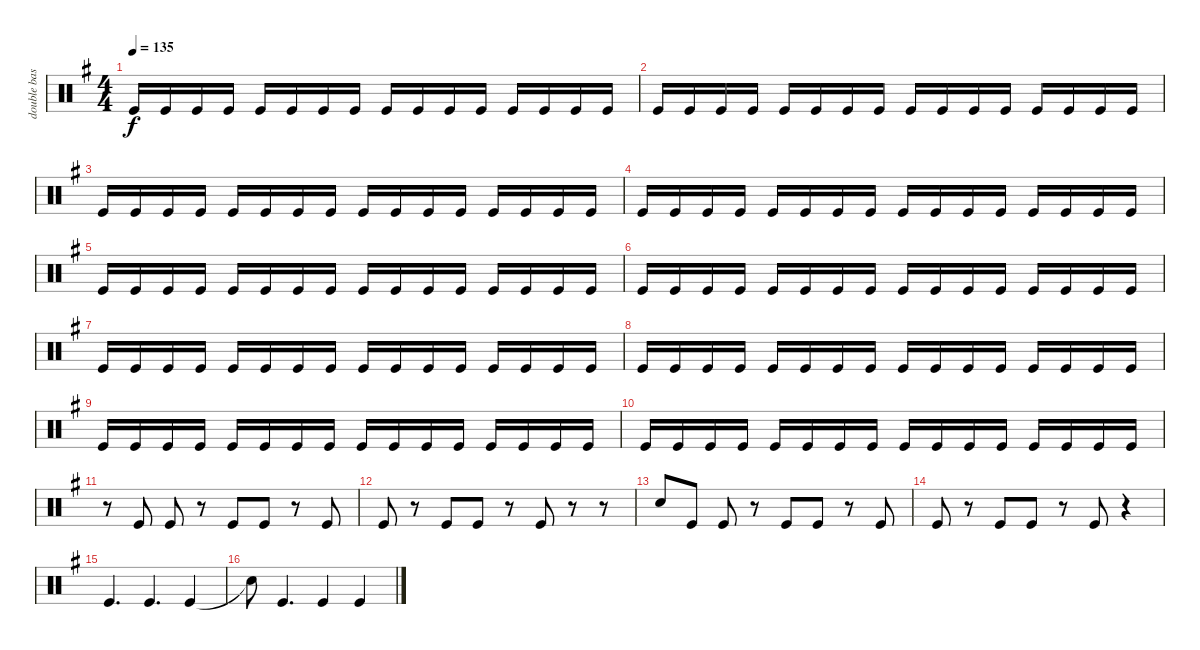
\track ("double bass" "double bas") {instrument percussion}
\staff {score}
\articulation defaults
\ts (4 4)
\tempo 135
\clef neutral
\ks eminor "Kick (hit)".16{dy f} "Kick (hit)".16 "Kick (hit)".16 "Kick (hit)".16 "Kick (hit)".16 "Kick (hit)".16 "Kick (hit)".16 "Kick (hit)".16 "Kick (hit)".16 "Kick (hit)".16 "Kick (hit)".16 "Kick (hit)".16 "Kick (hit)".16 "Kick (hit)".16 "Kick (hit)".16 "Kick (hit)".16
|
"Kick (hit)".16 "Kick (hit)".16 "Kick (hit)".16 "Kick (hit)".16 "Kick (hit)".16 "Kick (hit)".16 "Kick (hit)".16 "Kick (hit)".16 "Kick (hit)".16 "Kick (hit)".16 "Kick (hit)".16 "Kick (hit)".16 "Kick (hit)".16 "Kick (hit)".16 "Kick (hit)".16 "Kick (hit)".16 |
"Kick (hit)".16 "Kick (hit)".16 "Kick (hit)".16 "Kick (hit)".16 "Kick (hit)".16 "Kick (hit)".16 "Kick (hit)".16 "Kick (hit)".16 "Kick (hit)".16 "Kick (hit)".16 "Kick (hit)".16 "Kick (hit)".16 "Kick (hit)".16 "Kick (hit)".16 "Kick (hit)".16 "Kick (hit)".16 |
"Kick (hit)".16 "Kick (hit)".16 "Kick (hit)".16 "Kick (hit)".16 "Kick (hit)".16 "Kick (hit)".16 "Kick (hit)".16 "Kick (hit)".16 "Kick (hit)".16 "Kick (hit)".16 "Kick (hit)".16 "Kick (hit)".16 "Kick (hit)".16 "Kick (hit)".16 "Kick (hit)".16 "Kick (hit)".16 |
"Kick (hit)".16 "Kick (hit)".16 "Kick (hit)".16 "Kick (hit)".16 "Kick (hit)".16 "Kick (hit)".16 "Kick (hit)".16 "Kick (hit)".16 "Kick (hit)".16 "Kick (hit)".16 "Kick (hit)".16 "Kick (hit)".16 "Kick (hit)".16 "Kick (hit)".16 "Kick (hit)".16 "Kick (hit)".16 |
"Kick (hit)".16 "Kick (hit)".16 "Kick (hit)".16 "Kick (hit)".16 "Kick (hit)".16 "Kick (hit)".16 "Kick (hit)".16 "Kick (hit)".16 "Kick (hit)".16 "Kick (hit)".16 "Kick (hit)".16 "Kick (hit)".16 "Kick (hit)".16 "Kick (hit)".16 "Kick (hit)".16 "Kick (hit)".16 |
"Kick (hit)".16 "Kick (hit)".16 "Kick (hit)".16 "Kick (hit)".16 "Kick (hit)".16 "Kick (hit)".16 "Kick (hit)".16 "Kick (hit)".16 "Kick (hit)".16 "Kick (hit)".16 "Kick (hit)".16 "Kick (hit)".16 "Kick (hit)".16 "Kick (hit)".16 "Kick (hit)".16 "Kick (hit)".16 |
"Kick (hit)".16 "Kick (hit)".16 "Kick (hit)".16 "Kick (hit)".16 "Kick (hit)".16 "Kick (hit)".16 "Kick (hit)".16 "Kick (hit)".16 "Kick (hit)".16 "Kick (hit)".16 "Kick (hit)".16 "Kick (hit)".16 "Kick (hit)".16 "Kick (hit)".16 "Kick (hit)".16 "Kick (hit)".16 |
"Kick (hit)".16 "Kick (hit)".16 "Kick (hit)".16 "Kick (hit)".16 "Kick (hit)".16 "Kick (hit)".16 "Kick (hit)".16 "Kick (hit)".16 "Kick (hit)".16 "Kick (hit)".16 "Kick (hit)".16 "Kick (hit)".16 "Kick (hit)".16 "Kick (hit)".16 "Kick (hit)".16 "Kick (hit)".16 |
"Kick (hit)".16 "Kick (hit)".16 "Kick (hit)".16 "Kick (hit)".16 "Kick (hit)".16 "Kick (hit)".16 "Kick (hit)".16 "Kick (hit)".16 "Kick (hit)".16 "Kick (hit)".16 "Kick (hit)".16 "Kick (hit)".16 "Kick (hit)".16 "Kick (hit)".16 "Kick (hit)".16 "Kick (hit)".16 |
r.8 "Kick (hit)".8 "Kick (hit)".8 r.8 "Kick (hit)".8 "Kick (hit)".8 r.8 "Kick (hit)".8 |
"Kick (hit)".8 r.8 "Kick (hit)".8 "Kick (hit)".8 r.8 "Kick (hit)".8 r.8 r.8 |
"Snare (hit) 2".8 "Kick (hit)".8 "Kick (hit)".8 r.8 "Kick (hit)".8 "Kick (hit)".8 r.8 "Kick (hit)".8 |
"Kick (hit)".8 r.8 "Kick (hit)".8 "Kick (hit)".8 r.8 "Kick (hit)".8 r.4 |
"Kick (hit)".4{d} "Kick (hit)".4{d} "Kick (hit)".4 |
"Snare (hit) 2"{t}.8 "Kick (hit)".4{d} "Kick (hit)".4 "Kick (hit)".4
